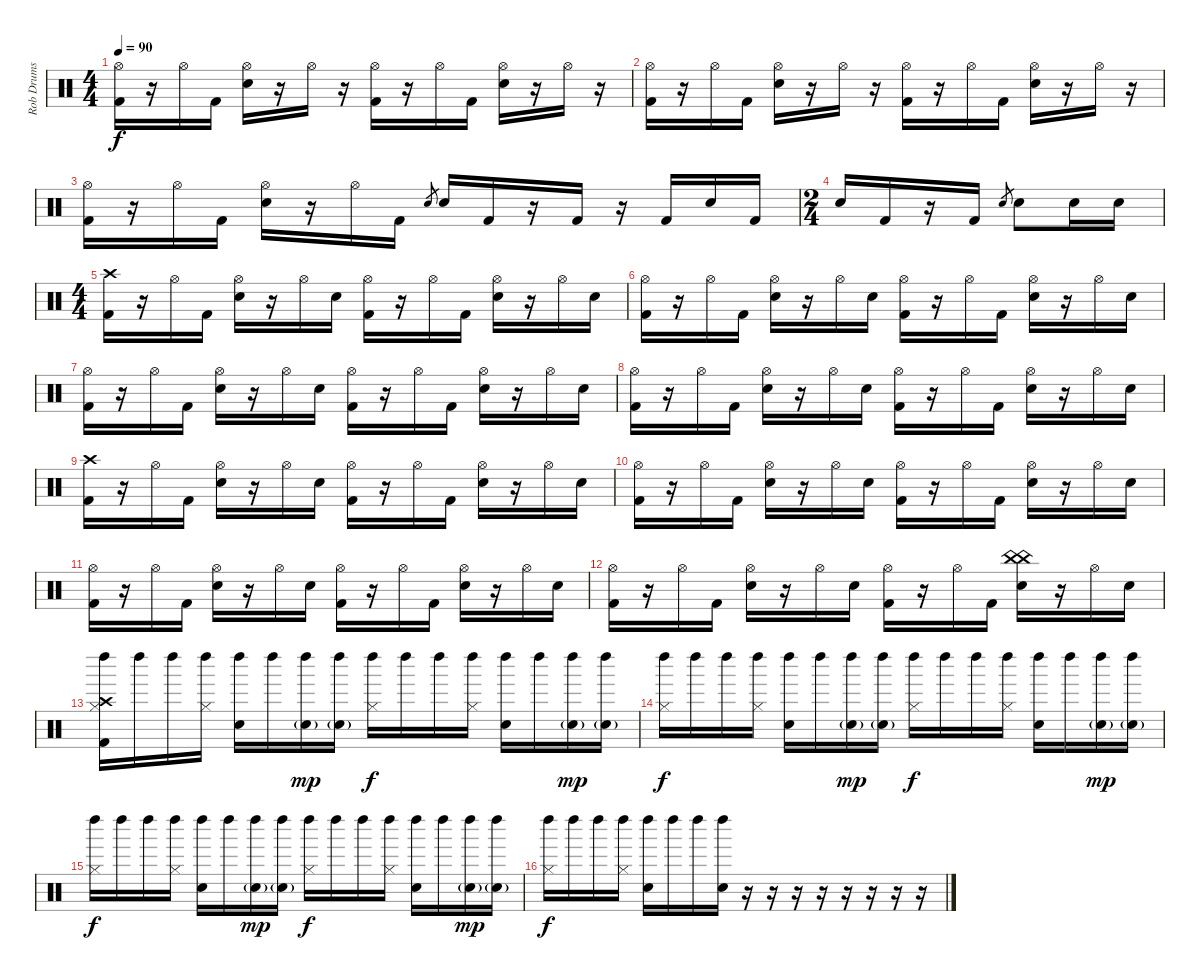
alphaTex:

\track ("Rob Drums" "Rob Drums") {instrument percussion}
\staff {score}
\articulation defaults
\ts (4 4)
\tempo 90
\clef neutral
\ks c
("Hi-Hat (open)" "Kick (hit) 2").16{dy f} r.16 "Hi-Hat (open)".16 "Kick (hit) 2".16 ("Hi-Hat (open)" "Electric Snare (hit)").16 r.16 "Hi-Hat (open)".16 r.16 ("Hi-Hat (open)" "Kick (hit) 2").16 r.16 "Hi-Hat (open)".16 "Kick (hit) 2".16 ("Hi-Hat (open)" "Electric Snare (hit)").16 r.16 "Hi-Hat (open)".16 r.16 |
("Hi-Hat (open)" "Kick (hit) 2").16 r.16 "Hi-Hat (open)".16 "Kick (hit) 2".16 ("Hi-Hat (open)" "Electric Snare (hit)").16 r.16 "Hi-Hat (open)".16 r.16 ("Hi-Hat (open)" "Kick (hit) 2").16 r.16 "Hi-Hat (open)".16 "Kick (hit) 2".16 ("Hi-Hat (open)" "Electric Snare (hit)").16 r.16 "Hi-Hat (open)".16 r.16 |
("Hi-Hat (open)" "Kick (hit) 2").16 r.16 "Hi-Hat (open)".16 "Kick (hit) 2".16 ("Hi-Hat (open)" "Electric Snare (hit)").16 r.16 "Hi-Hat (open)".16 "Kick (hit) 2".16 "Electric Snare (hit)".8{gr} "Electric Snare (hit)".16 "Kick (hit) 2".16 r.16 "Kick (hit) 2".16 r.16 "Kick (hit) 2".16 "Electric Snare (hit)".16 "Kick (hit) 2".16 |
\ts (2 4)
"Electric Snare (hit)".16 "Kick (hit) 2".16 r.16 "Kick (hit) 2".16 "Electric Snare (hit)".8{gr} "Electric Snare (hit)".8 "Electric Snare (hit)".16 "Electric Snare (hit)".16 |
\ts (4 4)
("Crash high (hit)" "Kick (hit) 2").16 r.16 "Hi-Hat (open)".16 "Kick (hit) 2".16 ("Hi-Hat (open)" "Electric Snare (hit)").16 r.16 "Hi-Hat (open)".16 "Electric Snare (hit)".16 ("Hi-Hat (open)" "Kick (hit) 2").16 r.16 "Hi-Hat (open)".16 "Kick (hit) 2".16 ("Hi-Hat (open)" "Electric Snare (hit)").16 r.16 "Hi-Hat (open)".16 "Electric Snare (hit)".16 |
("Hi-Hat (open)" "Kick (hit) 2").16 r.16 "Hi-Hat (open)".16 "Kick (hit) 2".16 ("Hi-Hat (open)" "Electric Snare (hit)").16 r.16 "Hi-Hat (open)".16 "Electric Snare (hit)".16 ("Hi-Hat (open)" "Kick (hit) 2").16 r.16 "Hi-Hat (open)".16 "Kick (hit) 2".16 ("Hi-Hat (open)" "Electric Snare (hit)").16 r.16 "Hi-Hat (open)".16 "Electric Snare (hit)".16 |
("Hi-Hat (open)" "Kick (hit) 2").16 r.16 "Hi-Hat (open)".16 "Kick (hit) 2".16 ("Hi-Hat (open)" "Electric Snare (hit)").16 r.16 "Hi-Hat (open)".16 "Electric Snare (hit)".16 ("Hi-Hat (open)" "Kick (hit) 2").16 r.16 "Hi-Hat (open)".16 "Kick (hit) 2".16 ("Hi-Hat (open)" "Electric Snare (hit)").16 r.16 "Hi-Hat (open)".16 "Electric Snare (hit)".16 |
("Hi-Hat (open)" "Kick (hit) 2").16 r.16 "Hi-Hat (open)".16 "Kick (hit) 2".16 ("Hi-Hat (open)" "Electric Snare (hit)").16 r.16 "Hi-Hat (open)".16 "Electric Snare (hit)".16 ("Hi-Hat (open)" "Kick (hit) 2").16 r.16 "Hi-Hat (open)".16 "Kick (hit) 2".16 ("Hi-Hat (open)" "Electric Snare (hit)").16 r.16 "Hi-Hat (open)".16 "Electric Snare (hit)".16 |
("Crash high (hit)" "Kick (hit) 2").16 r.16 "Hi-Hat (open)".16 "Kick (hit) 2".16 ("Hi-Hat (open)" "Electric Snare (hit)").16 r.16 "Hi-Hat (open)".16 "Electric Snare (hit)".16 ("Hi-Hat (open)" "Kick (hit) 2").16 r.16 "Hi-Hat (open)".16 "Kick (hit) 2".16 ("Hi-Hat (open)" "Electric Snare (hit)").16 r.16 "Hi-Hat (open)".16 "Electric Snare (hit)".16 |
("Hi-Hat (open)" "Kick (hit) 2").16 r.16 "Hi-Hat (open)".16 "Kick (hit) 2".16 ("Hi-Hat (open)" "Electric Snare (hit)").16 r.16 "Hi-Hat (open)".16 "Electric Snare (hit)".16 ("Hi-Hat (open)" "Kick (hit) 2").16 r.16 "Hi-Hat (open)".16 "Kick (hit) 2".16 ("Hi-Hat (open)" "Electric Snare (hit)").16 r.16 "Hi-Hat (open)".16 "Electric Snare (hit)".16 |
("Hi-Hat (open)" "Kick (hit) 2").16 r.16 "Hi-Hat (open)".16 "Kick (hit) 2".16 ("Hi-Hat (open)" "Electric Snare (hit)").16 r.16 "Hi-Hat (open)".16 "Electric Snare (hit)".16 ("Hi-Hat (open)" "Kick (hit) 2").16 r.16 "Hi-Hat (open)".16 "Kick (hit) 2".16 ("Hi-Hat (open)" "Electric Snare (hit)").16 r.16 "Hi-Hat (open)".16 "Electric Snare (hit)".16 |
("Hi-Hat (open)" "Kick (hit) 2").16 r.16 "Hi-Hat (open)".16 "Kick (hit) 2".16 ("Hi-Hat (open)" "Electric Snare (hit)").16 r.16 "Hi-Hat (open)".16 "Electric Snare (hit)".16 ("Hi-Hat (open)" "Kick (hit) 2").16 r.16 "Hi-Hat (open)".16 "Kick (hit) 2".16 ("China (hit)" "China (hit)" "Electric Snare (hit)").16 r.16 "Hi-Hat (open)".16 "Electric Snare (hit)".16 |
("Crash high (hit)" "Left Maraca (hit)" "Kick (hit) 2" "Hi-Hat (closed)").16 "Left Maraca (hit)".16 "Left Maraca (hit)".16 ("Left Maraca (hit)" "Hi-Hat (closed)").16 ("Left Maraca (hit)" "Hand Clap (hit)").16 "Left Maraca (hit)".16 ("Left Maraca (hit)" "Hand Clap (hit)"{g}).16{dy mp} ("Left Maraca (hit)" "Hand Clap (hit)"{g}).16 ("Left Maraca (hit)" "Hi-Hat (closed)").16{dy f} "Left Maraca (hit)".16 "Left Maraca (hit)".16 ("Left Maraca (hit)" "Hi-Hat (closed)").16 ("Left Maraca (hit)" "Hand Clap (hit)").16 "Left Maraca (hit)".16 ("Left Maraca (hit)" "Hand Clap (hit)"{g}).16{dy mp} ("Left Maraca (hit)" "Hand Clap (hit)"{g}).16 |
("Left Maraca (hit)" "Hi-Hat (closed)").16{dy f} "Left Maraca (hit)".16 "Left Maraca (hit)".16 ("Left Maraca (hit)" "Hi-Hat (closed)").16 ("Left Maraca (hit)" "Hand Clap (hit)").16 "Left Maraca (hit)".16 ("Left Maraca (hit)" "Hand Clap (hit)"{g}).16{dy mp} ("Left Maraca (hit)" "Hand Clap (hit)"{g}).16 ("Left Maraca (hit)" "Hi-Hat (closed)").16{dy f} "Left Maraca (hit)".16 "Left Maraca (hit)".16 ("Left Maraca (hit)" "Hi-Hat (closed)").16 ("Left Maraca (hit)" "Hand Clap (hit)").16 "Left Maraca (hit)".16 ("Left Maraca (hit)" "Hand Clap (hit)"{g}).16{dy mp} ("Left Maraca (hit)" "Hand Clap (hit)"{g}).16 |
("Left Maraca (hit)" "Hi-Hat (closed)").16{dy f} "Left Maraca (hit)".16 "Left Maraca (hit)".16 ("Left Maraca (hit)" "Hi-Hat (closed)").16 ("Left Maraca (hit)" "Hand Clap (hit)").16 "Left Maraca (hit)".16 ("Left Maraca (hit)" "Hand Clap (hit)"{g}).16{dy mp} ("Left Maraca (hit)" "Hand Clap (hit)"{g}).16 ("Left Maraca (hit)" "Hi-Hat (closed)").16{dy f} "Left Maraca (hit)".16 "Left Maraca (hit)".16 ("Left Maraca (hit)" "Hi-Hat (closed)").16 ("Left Maraca (hit)" "Hand Clap (hit)").16 "Left Maraca (hit)".16 ("Left Maraca (hit)" "Hand Clap (hit)"{g}).16{dy mp} ("Left Maraca (hit)" "Hand Clap (hit)"{g}).16 |
("Left Maraca (hit)" "Hi-Hat (closed)").16{dy f} "Left Maraca (hit)".16 "Left Maraca (hit)".16 ("Left Maraca (hit)" "Hi-Hat (closed)").16 ("Left Maraca (hit)" "Hand Clap (hit)").16 "Left Maraca (hit)".16 "Left Maraca (hit)".16 ("Left Maraca (hit)" "Hand Clap (hit)").16 r.16 r.16 r.16 r.16 r.16 r.16 r.16 r.16
